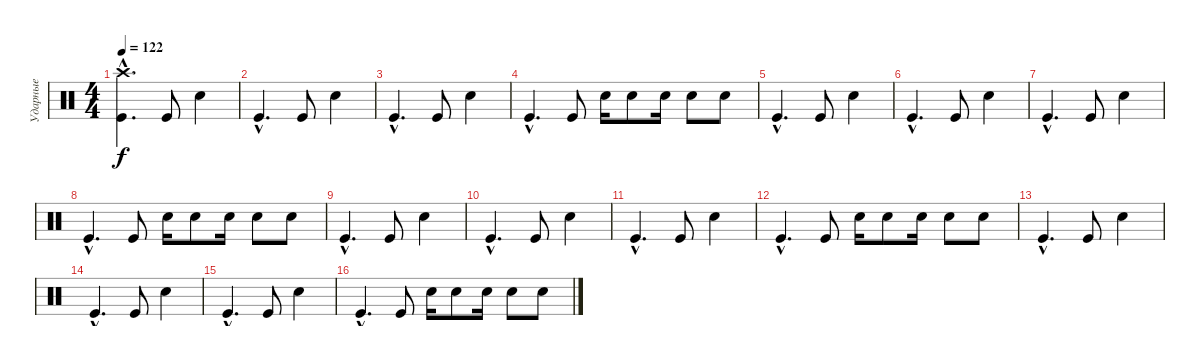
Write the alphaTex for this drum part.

\track ("Ударные" "Ударные") {instrument percussion}
\staff {score}
\articulation defaults
\ts (4 4)
\tempo 122
\clef neutral
\ks c
("Kick (hit)"{hac} "Crash high (hit)"{hac}).4{d dy f} "Kick (hit)".8 "Electric Snare (hit)".4 |
"Kick (hit)"{hac}.4{d} "Kick (hit)".8 "Electric Snare (hit)".4 |
"Kick (hit)"{hac}.4{d} "Kick (hit)".8 "Electric Snare (hit)".4 |
"Kick (hit)"{hac}.4{d} "Kick (hit)".8 "Electric Snare (hit)".16 "Electric Snare (hit)".8 "Electric Snare (hit)".16 "Electric Snare (hit)".8 "Electric Snare (hit)".8 |
"Kick (hit)"{hac}.4{d} "Kick (hit)".8 "Electric Snare (hit)".4 |
"Kick (hit)"{hac}.4{d} "Kick (hit)".8 "Electric Snare (hit)".4 |
"Kick (hit)"{hac}.4{d} "Kick (hit)".8 "Electric Snare (hit)".4 |
"Kick (hit)"{hac}.4{d} "Kick (hit)".8 "Electric Snare (hit)".16 "Electric Snare (hit)".8 "Electric Snare (hit)".16 "Electric Snare (hit)".8 "Electric Snare (hit)".8 |
"Kick (hit)"{hac}.4{d} "Kick (hit)".8 "Electric Snare (hit)".4 |
"Kick (hit)"{hac}.4{d} "Kick (hit)".8 "Electric Snare (hit)".4 |
"Kick (hit)"{hac}.4{d} "Kick (hit)".8 "Electric Snare (hit)".4 |
"Kick (hit)"{hac}.4{d} "Kick (hit)".8 "Electric Snare (hit)".16 "Electric Snare (hit)".8 "Electric Snare (hit)".16 "Electric Snare (hit)".8 "Electric Snare (hit)".8 |
"Kick (hit)"{hac}.4{d} "Kick (hit)".8 "Electric Snare (hit)".4 |
"Kick (hit)"{hac}.4{d} "Kick (hit)".8 "Electric Snare (hit)".4 |
"Kick (hit)"{hac}.4{d} "Kick (hit)".8 "Electric Snare (hit)".4 |
"Kick (hit)"{hac}.4{d} "Kick (hit)".8 "Electric Snare (hit)".16 "Electric Snare (hit)".8 "Electric Snare (hit)".16 "Electric Snare (hit)".8 "Electric Snare (hit)".8
